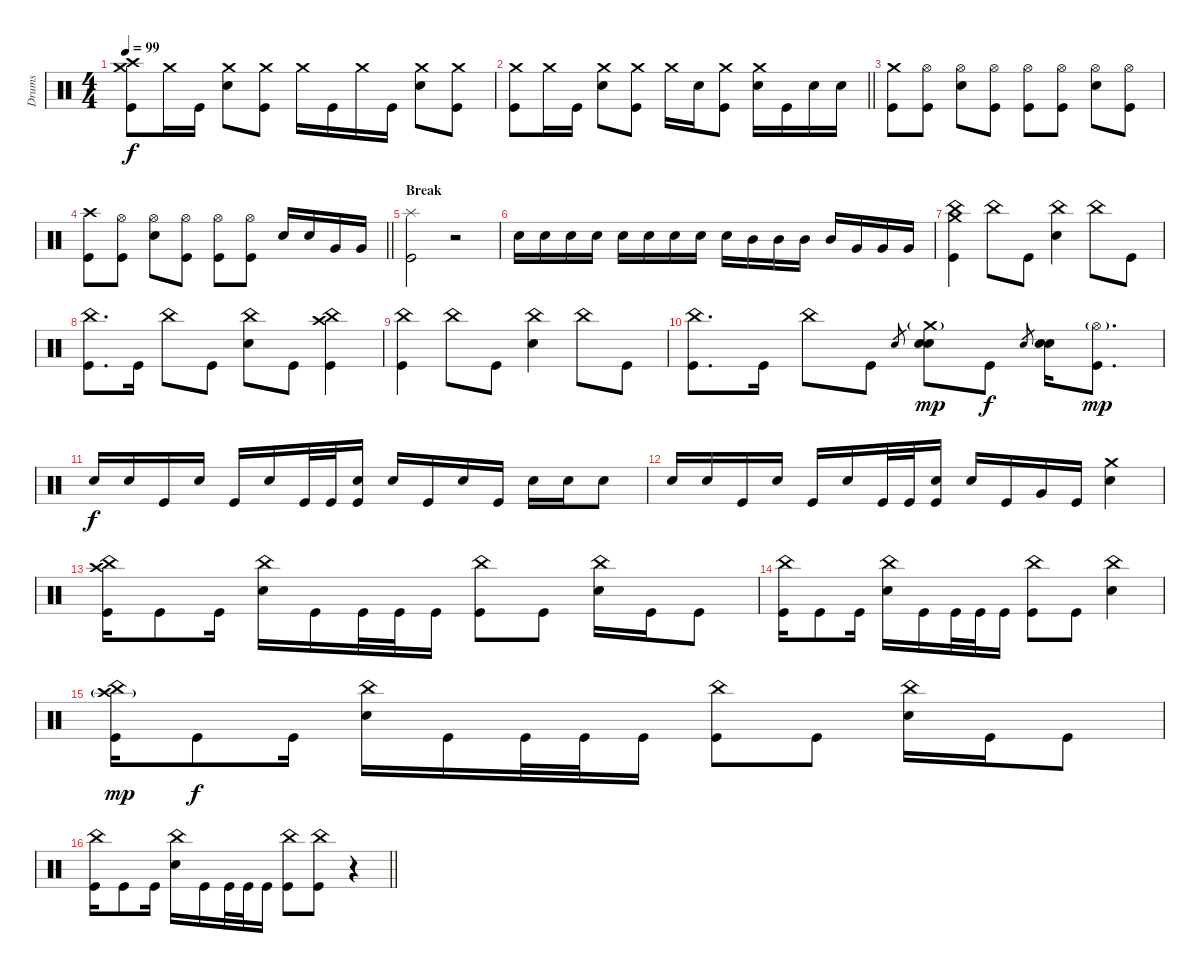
\track ("Drums" "Drums") {instrument percussion}
\staff {score}
\articulation defaults
\ts (4 4)
\tempo 99
\clef neutral
\ks c
("Crash high (hit)" "Crash medium (hit)" "Kick (hit)").8{dy f} "Crash medium (hit)".16 "Kick (hit)".16 ("Crash medium (hit)" "Snare (hit) 2").8 ("Crash medium (hit)" "Kick (hit)").8 "Crash medium (hit)".16 "Kick (hit)".16 "Crash medium (hit)".16 "Kick (hit)".16 ("Crash medium (hit)" "Snare (hit) 2").8 ("Crash medium (hit)" "Kick (hit)").8 |
\barLineRight lightlight
("Crash medium (hit)" "Kick (hit)").8 "Crash medium (hit)".16 "Kick (hit)".16 ("Crash medium (hit)" "Snare (hit) 2").8 ("Crash medium (hit)" "Kick (hit)").8 "Crash medium (hit)".16 "Snare (hit) 2".16 ("Crash medium (hit)" "Kick (hit)").8 ("Crash medium (hit)" "Snare (hit) 2").16 "Kick (hit)".16 "Snare (hit) 2".16 "Snare (hit) 2".16 |
("Crash medium (hit)" "Kick (hit)").8 ("Hi-Hat (open)" "Kick (hit)").8 ("Hi-Hat (open)" "Snare (hit) 2").8 ("Hi-Hat (open)" "Kick (hit)").8 ("Hi-Hat (open)" "Kick (hit)").8 ("Hi-Hat (open)" "Kick (hit)").8 ("Hi-Hat (open)" "Snare (hit) 2").8 ("Hi-Hat (open)" "Kick (hit)").8 |
\barLineRight lightlight
("Crash high (hit)" "Kick (hit)").8 ("Hi-Hat (open)" "Kick (hit)").8 ("Hi-Hat (open)" "Snare (hit) 2").8 ("Hi-Hat (open)" "Kick (hit)").8 ("Hi-Hat (open)" "Kick (hit)").8 ("Hi-Hat (open)" "Kick (hit)").8 "Snare (hit) 2".16 "Snare (hit) 2".16 "Very Low Tom (hit)".16 "Very Low Tom (hit)".16 |
\section ("" "Break")
("Splash (hit)" "Kick (hit)").2 r.2{volume 6} |
"Snare (hit) 2".16{volume 13} "Snare (hit) 2".16 "Snare (hit) 2".16 "Snare (hit) 2".16 "Snare (hit) 2".16 "Snare (hit) 2".16 "Snare (hit) 2".16 "Snare (hit) 2".16 "Snare (hit) 2".16 "Mid Tom (hit)".16 "Mid Tom (hit)".16 "Mid Tom (hit)".16 "Mid Tom (hit)".16 "Very Low Tom (hit)".16 "Very Low Tom (hit)".16 "Very Low Tom (hit)".16 |
("Crash medium (hit)" "China (hit)" "Kick (hit)").4 "China (hit)".8 "Kick (hit)".8 ("China (hit)" "Snare (hit) 2").4 "China (hit)".8 "Kick (hit)".8 |
("China (hit)" "Kick (hit)").8{d} "Kick (hit)".16 "China (hit)".8 "Kick (hit)".8 ("China (hit)" "Snare (hit) 2").8 "Kick (hit)".8 ("China (hit)" "Crash high (hit)" "Kick (hit)").4 |
("China (hit)" "Kick (hit)").4 "China (hit)".8 "Kick (hit)".8 ("China (hit)" "Snare (hit) 2").4 "China (hit)".8 "Kick (hit)".8 |
("China (hit)" "Kick (hit)").8{d} "Kick (hit)".16 "China (hit)".8 "Kick (hit)".8 "Snare (hit) 2".8{gr} ("Crash medium (hit)"{g} "Snare (hit) 2" "Snare (hit) 2").8{dy mp} "Kick (hit)".8{dy f} "Snare (hit) 2".8{gr} ("Snare (hit) 2" "Snare (hit) 2").16 ("Hi-Hat (open)"{g} "Kick (hit)").8{d dy mp} |
"Snare (hit) 2".16{dy f} "Snare (hit) 2".16 "Kick (hit)".16 "Snare (hit) 2".16 "Kick (hit)".16 "Snare (hit) 2".16 "Kick (hit)".32 "Kick (hit)".32 ("Snare (hit) 2" "Kick (hit)").16 "Snare (hit) 2".16 "Kick (hit)".16 "Snare (hit) 2".16 "Kick (hit)".16 "Snare (hit) 2".16 "Snare (hit) 2".16 "Snare (hit) 2".8 |
"Snare (hit) 2".16 "Snare (hit) 2".16 "Kick (hit)".16 "Snare (hit) 2".16 "Kick (hit)".16 "Snare (hit) 2".16 "Kick (hit)".32 "Kick (hit)".32 ("Snare (hit) 2" "Kick (hit)").16 "Snare (hit) 2".16 "Kick (hit)".16 "Very Low Tom (hit)".16 "Kick (hit)".16 ("Crash medium (hit)" "Snare (hit) 2").4 |
("Crash high (hit)" "China (hit)" "Kick (hit)").16 "Kick (hit)".8 "Kick (hit)".16 ("China (hit)" "Snare (hit) 2").16 "Kick (hit)".16 "Kick (hit)".32 "Kick (hit)".32 "Kick (hit)".16 ("China (hit)" "Kick (hit)").8 "Kick (hit)".8 ("China (hit)" "Snare (hit) 2").16 "Kick (hit)".16 "Kick (hit)".8 |
("China (hit)" "Kick (hit)").16 "Kick (hit)".8 "Kick (hit)".16 ("China (hit)" "Snare (hit) 2").16 "Kick (hit)".16 "Kick (hit)".32 "Kick (hit)".32 "Kick (hit)".16 ("China (hit)" "Kick (hit)").8 "Kick (hit)".8 ("China (hit)" "Snare (hit) 2").4 |
("Crash high (hit)"{g} "China (hit)" "Kick (hit)").16{dy mp} "Kick (hit)".8{dy f} "Kick (hit)".16 ("China (hit)" "Snare (hit) 2").16 "Kick (hit)".16 "Kick (hit)".32 "Kick (hit)".32 "Kick (hit)".16 ("China (hit)" "Kick (hit)").8 "Kick (hit)".8 ("China (hit)" "Snare (hit) 2").16 "Kick (hit)".16 "Kick (hit)".8 |
\barLineRight lightlight
("China (hit)" "Kick (hit)").16 "Kick (hit)".8 "Kick (hit)".16 ("China (hit)" "Snare (hit) 2").16 "Kick (hit)".16 "Kick (hit)".32 "Kick (hit)".32 "Kick (hit)".16 ("China (hit)" "Kick (hit)").8 ("China (hit)" "Kick (hit)").8 r.4
